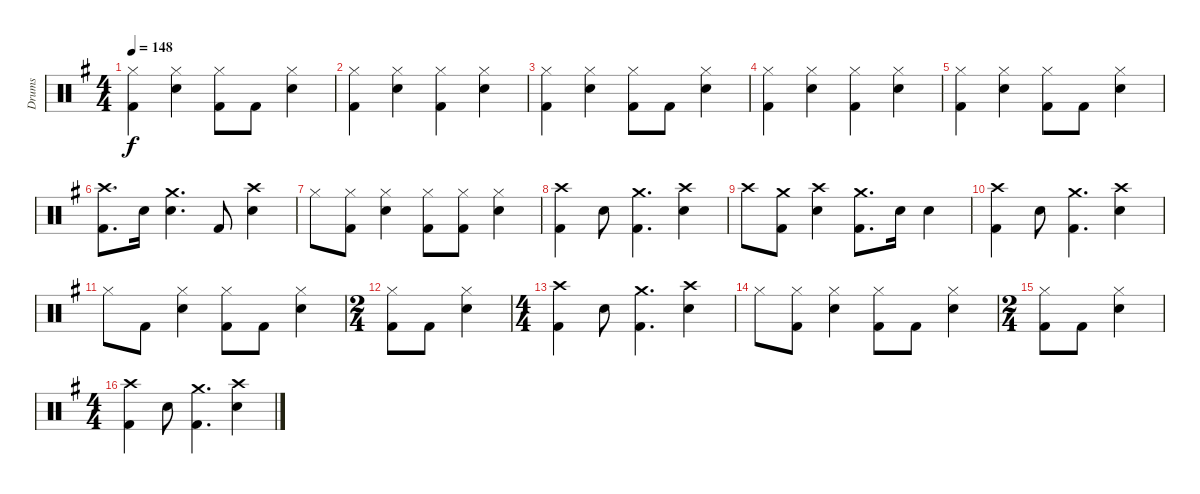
\track ("Drums" "Drums") {instrument percussion}
\staff {score}
\articulation defaults
\ts (4 4)
\tempo 148
\clef neutral
\ks eminor
("Kick (hit) 2" "Hi-Hat (closed)").4{dy f} ("Snare (hit) 2" "Hi-Hat (closed)").4 ("Kick (hit) 2" "Hi-Hat (closed)").8 "Kick (hit) 2".8 ("Snare (hit) 2" "Hi-Hat (closed)").4 |
("Kick (hit) 2" "Hi-Hat (closed)").4 ("Snare (hit) 2" "Hi-Hat (closed)").4 ("Kick (hit) 2" "Hi-Hat (closed)").4 ("Snare (hit) 2" "Hi-Hat (closed)").4 |
("Kick (hit) 2" "Hi-Hat (closed)").4 ("Snare (hit) 2" "Hi-Hat (closed)").4 ("Kick (hit) 2" "Hi-Hat (closed)").8 "Kick (hit) 2".8 ("Snare (hit) 2" "Hi-Hat (closed)").4 |
("Kick (hit) 2" "Hi-Hat (closed)").4 ("Snare (hit) 2" "Hi-Hat (closed)").4 ("Kick (hit) 2" "Hi-Hat (closed)").4 ("Snare (hit) 2" "Hi-Hat (closed)").4 |
("Kick (hit) 2" "Hi-Hat (closed)").4 ("Snare (hit) 2" "Hi-Hat (closed)").4 ("Kick (hit) 2" "Hi-Hat (closed)").8 "Kick (hit) 2".8 ("Snare (hit) 2" "Hi-Hat (closed)").4 |
("Kick (hit) 2" "Crash high (hit)").8{d} "Snare (hit) 2".16 ("Snare (hit) 2" "Crash medium (hit)").4{d} "Kick (hit) 2".8 ("Snare (hit) 2" "Crash high (hit)").4 |
"Hi-Hat (closed)".8 ("Kick (hit) 2" "Hi-Hat (closed)").8 ("Snare (hit) 2" "Hi-Hat (closed)").4 ("Kick (hit) 2" "Hi-Hat (closed)").8 ("Kick (hit) 2" "Hi-Hat (closed)").8 ("Snare (hit) 2" "Hi-Hat (closed)").4 |
("Kick (hit) 2" "Crash high (hit)").4 "Snare (hit) 2".8 ("Kick (hit) 2" "Crash medium (hit)").4{d} ("Snare (hit) 2" "Crash high (hit)").4 |
"Crash high (hit)".8 ("Kick (hit) 2" "Crash medium (hit)").8 ("Snare (hit) 2" "Crash high (hit)").4 ("Kick (hit) 2" "Crash medium (hit)").8{d} "Snare (hit) 2".16 "Snare (hit) 2".4 |
("Kick (hit) 2" "Crash high (hit)").4 "Snare (hit) 2".8 ("Kick (hit) 2" "Crash medium (hit)").4{d} ("Snare (hit) 2" "Crash high (hit)").4 |
"Hi-Hat (closed)".8 "Kick (hit) 2".8 ("Snare (hit) 2" "Hi-Hat (closed)").4 ("Kick (hit) 2" "Hi-Hat (closed)").8 "Kick (hit) 2".8 ("Snare (hit) 2" "Hi-Hat (closed)").4 |
\ts (2 4)
("Kick (hit) 2" "Hi-Hat (closed)").8 "Kick (hit) 2".8 ("Snare (hit) 2" "Hi-Hat (closed)").4 |
\ts (4 4)
("Kick (hit) 2" "Crash high (hit)").4 "Snare (hit) 2".8 ("Kick (hit) 2" "Crash medium (hit)").4{d} ("Snare (hit) 2" "Crash high (hit)").4 |
"Hi-Hat (closed)".8 ("Kick (hit) 2" "Hi-Hat (closed)").8 ("Snare (hit) 2" "Hi-Hat (closed)").4 ("Kick (hit) 2" "Hi-Hat (closed)").8 "Kick (hit) 2".8 ("Snare (hit) 2" "Hi-Hat (closed)").4 |
\ts (2 4)
("Kick (hit) 2" "Hi-Hat (closed)").8 "Kick (hit) 2".8 ("Snare (hit) 2" "Hi-Hat (closed)").4 |
\ts (4 4)
("Kick (hit) 2" "Crash high (hit)").4 "Snare (hit) 2".8 ("Kick (hit) 2" "Crash medium (hit)").4{d} ("Snare (hit) 2" "Crash high (hit)").4
